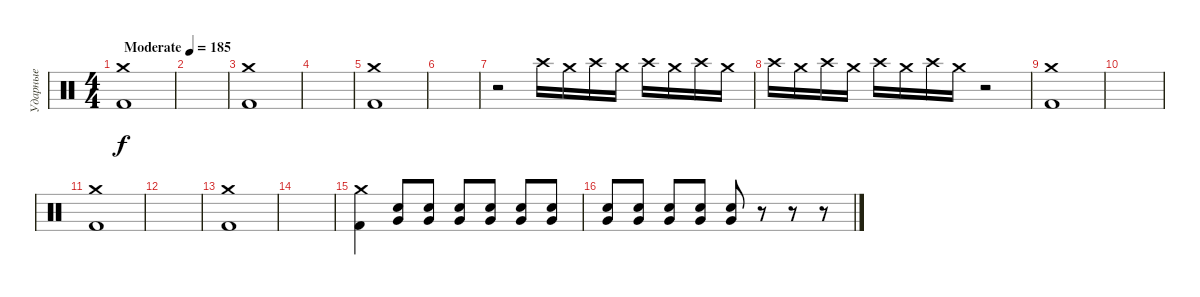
\track ("Ударные" "Ударные") {instrument percussion}
\staff {score}
\articulation defaults
\ts (4 4)
\tempo (185 "Moderate")
\clef neutral
\ks c
("Crash medium (hit)" "Kick (hit) 2").1{dy f} |
|
("Crash medium (hit)" "Kick (hit) 2").1 |
|
("Crash medium (hit)" "Kick (hit) 2").1 |
|
r.2 "Crash high (hit)".16{volume 13} "Crash medium (hit)".16 "Crash high (hit)".16 "Crash medium (hit)".16 "Crash high (hit)".16 "Crash medium (hit)".16 "Crash high (hit)".16 "Crash medium (hit)".16 |
"Crash high (hit)".16 "Crash medium (hit)".16 "Crash high (hit)".16 "Crash medium (hit)".16 "Crash high (hit)".16 "Crash medium (hit)".16 "Crash high (hit)".16 "Crash medium (hit)".16 r.2 |
("Crash medium (hit)" "Kick (hit) 2").1 |
|
("Crash medium (hit)" "Kick (hit) 2").1 |
|
("Crash medium (hit)" "Kick (hit) 2").1 |
|
("Crash medium (hit)" "Kick (hit) 2").4 ("Very Low Tom (hit)" "Electric Snare (hit)").8 ("Very Low Tom (hit)" "Electric Snare (hit)").8 ("Very Low Tom (hit)" "Electric Snare (hit)").8 ("Very Low Tom (hit)" "Electric Snare (hit)").8 ("Very Low Tom (hit)" "Electric Snare (hit)").8 ("Very Low Tom (hit)" "Electric Snare (hit)").8 |
("Very Low Tom (hit)" "Electric Snare (hit)").8 ("Very Low Tom (hit)" "Electric Snare (hit)").8 ("Very Low Tom (hit)" "Electric Snare (hit)").8 ("Very Low Tom (hit)" "Electric Snare (hit)").8 ("Very Low Tom (hit)" "Electric Snare (hit)").8 r.8 r.8 r.8
